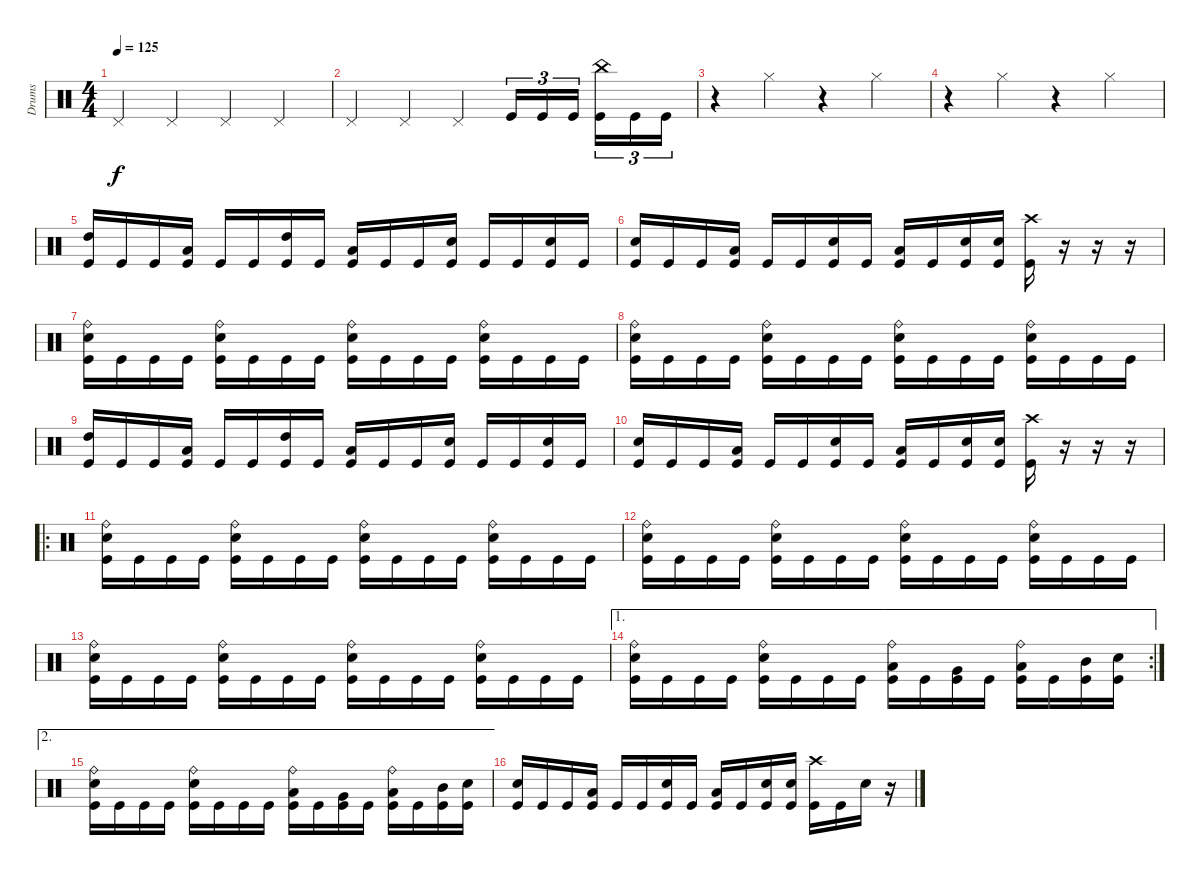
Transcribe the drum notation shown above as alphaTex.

\track ("Drums" "Drums") {instrument percussion}
\staff {score}
\articulation defaults
\ts (4 4)
\tempo 125
\clef neutral
\ks c "Pedal Hi-Hat (hit)".4{dy f} "Pedal Hi-Hat (hit)".4 "Pedal Hi-Hat (hit)".4 "Pedal Hi-Hat (hit)".4
|
"Pedal Hi-Hat (hit)".4 "Pedal Hi-Hat (hit)".4 "Pedal Hi-Hat (hit)".4 "Kick (hit)".16{tu (3 2)} "Kick (hit)".16{tu (3 2)} "Kick (hit)".16{tu (3 2)} ("China (hit)" "Kick (hit)").16{tu (3 2)} "Kick (hit)".16{tu (3 2)} "Kick (hit)".16{tu (3 2)} |
r.4 "Hi-Hat (closed)".4 r.4 "Hi-Hat (closed)".4 |
r.4 "Hi-Hat (closed)".4 r.4 "Hi-Hat (closed)".4 |
("High Tom (hit)" "Kick (hit)").16 "Kick (hit)".16 "Kick (hit)".16 ("Low Tom (hit)" "Kick (hit)").16 "Kick (hit)".16 "Kick (hit)".16 ("High Tom (hit)" "Kick (hit)").16 "Kick (hit)".16 ("Low Tom (hit)" "Kick (hit)").16 "Kick (hit)".16 "Kick (hit)".16 ("Snare (hit) 2" "Kick (hit)").16 "Kick (hit)".16 "Kick (hit)".16 ("Snare (hit) 2" "Kick (hit)").16 "Kick (hit)".16 |
("Snare (hit) 2" "Kick (hit)").16 "Kick (hit)".16 "Kick (hit)".16 ("Low Floor Tom (hit)" "Kick (hit)").16 "Kick (hit)".16 "Kick (hit)".16 ("Snare (hit) 2" "Kick (hit)").16 "Kick (hit)".16 ("Low Floor Tom (hit)" "Kick (hit)").16 "Kick (hit)".16 ("Snare (hit) 2" "Kick (hit)").16 ("Snare (hit) 2" "Kick (hit)").16 ("Crash high (hit)" "Kick (hit)").16 r.16 r.16 r.16 |
("Ride (bell)" "Snare (hit) 2" "Kick (hit)").16 "Kick (hit)".16 "Kick (hit)".16 "Kick (hit)".16 ("Ride (bell)" "Snare (hit) 2" "Kick (hit)").16 "Kick (hit)".16 "Kick (hit)".16 "Kick (hit)".16 ("Ride (bell)" "Snare (hit) 2" "Kick (hit)").16 "Kick (hit)".16 "Kick (hit)".16 "Kick (hit)".16 ("Ride (bell)" "Snare (hit) 2" "Kick (hit)").16 "Kick (hit)".16 "Kick (hit)".16 "Kick (hit)".16 |
("Ride (bell)" "Snare (hit) 2" "Kick (hit)").16 "Kick (hit)".16 "Kick (hit)".16 "Kick (hit)".16 ("Ride (bell)" "Snare (hit) 2" "Kick (hit)").16 "Kick (hit)".16 "Kick (hit)".16 "Kick (hit)".16 ("Ride (bell)" "Snare (hit) 2" "Kick (hit)").16 "Kick (hit)".16 "Kick (hit)".16 "Kick (hit)".16 ("Ride (bell)" "Snare (hit) 2" "Kick (hit)").16 "Kick (hit)".16 "Kick (hit)".16 "Kick (hit)".16 |
("High Tom (hit)" "Kick (hit)").16 "Kick (hit)".16 "Kick (hit)".16 ("Low Tom (hit)" "Kick (hit)").16 "Kick (hit)".16 "Kick (hit)".16 ("High Tom (hit)" "Kick (hit)").16 "Kick (hit)".16 ("Low Tom (hit)" "Kick (hit)").16 "Kick (hit)".16 "Kick (hit)".16 ("Snare (hit) 2" "Kick (hit)").16 "Kick (hit)".16 "Kick (hit)".16 ("Snare (hit) 2" "Kick (hit)").16 "Kick (hit)".16 |
("Snare (hit) 2" "Kick (hit)").16 "Kick (hit)".16 "Kick (hit)".16 ("Low Floor Tom (hit)" "Kick (hit)").16 "Kick (hit)".16 "Kick (hit)".16 ("Snare (hit) 2" "Kick (hit)").16 "Kick (hit)".16 ("Low Floor Tom (hit)" "Kick (hit)").16 "Kick (hit)".16 ("Snare (hit) 2" "Kick (hit)").16 ("Snare (hit) 2" "Kick (hit)").16 ("Crash high (hit)" "Kick (hit)").16 r.16 r.16 r.16 |
\ro
("Ride (bell)" "Snare (hit) 2" "Kick (hit)").16 "Kick (hit)".16 "Kick (hit)".16 "Kick (hit)".16 ("Ride (bell)" "Snare (hit) 2" "Kick (hit)").16 "Kick (hit)".16 "Kick (hit)".16 "Kick (hit)".16 ("Ride (bell)" "Snare (hit) 2" "Kick (hit)").16 "Kick (hit)".16 "Kick (hit)".16 "Kick (hit)".16 ("Ride (bell)" "Snare (hit) 2" "Kick (hit)").16 "Kick (hit)".16 "Kick (hit)".16 "Kick (hit)".16 |
("Ride (bell)" "Snare (hit) 2" "Kick (hit)").16 "Kick (hit)".16 "Kick (hit)".16 "Kick (hit)".16 ("Ride (bell)" "Snare (hit) 2" "Kick (hit)").16 "Kick (hit)".16 "Kick (hit)".16 "Kick (hit)".16 ("Ride (bell)" "Snare (hit) 2" "Kick (hit)").16 "Kick (hit)".16 "Kick (hit)".16 "Kick (hit)".16 ("Ride (bell)" "Snare (hit) 2" "Kick (hit)").16 "Kick (hit)".16 "Kick (hit)".16 "Kick (hit)".16 |
("Ride (bell)" "Snare (hit) 2" "Kick (hit)").16 "Kick (hit)".16 "Kick (hit)".16 "Kick (hit)".16 ("Ride (bell)" "Snare (hit) 2" "Kick (hit)").16 "Kick (hit)".16 "Kick (hit)".16 "Kick (hit)".16 ("Ride (bell)" "Snare (hit) 2" "Kick (hit)").16 "Kick (hit)".16 "Kick (hit)".16 "Kick (hit)".16 ("Ride (bell)" "Snare (hit) 2" "Kick (hit)").16 "Kick (hit)".16 "Kick (hit)".16 "Kick (hit)".16 |
\ae 1
\rc 2
("Ride (bell)" "Snare (hit) 2" "Kick (hit)").16 "Kick (hit)".16 "Kick (hit)".16 "Kick (hit)".16 ("Ride (bell)" "Snare (hit) 2" "Kick (hit)").16 "Kick (hit)".16 "Kick (hit)".16 "Kick (hit)".16 ("Ride (bell)" "Low Floor Tom (hit)" "Kick (hit)").16 "Kick (hit)".16 ("Very Low Tom (hit)" "Kick (hit)").16 "Kick (hit)".16 ("Ride (bell)" "Low Tom (hit)" "Kick (hit)").16 "Kick (hit)".16 ("Mid Tom (hit)" "Kick (hit)").16 ("Snare (hit) 2" "Kick (hit)").16 |
\ae 2
("Ride (bell)" "Snare (hit) 2" "Kick (hit)").16 "Kick (hit)".16 "Kick (hit)".16 "Kick (hit)".16 ("Ride (bell)" "Snare (hit) 2" "Kick (hit)").16 "Kick (hit)".16 "Kick (hit)".16 "Kick (hit)".16 ("Ride (bell)" "Low Floor Tom (hit)" "Kick (hit)").16 "Kick (hit)".16 ("Very Low Tom (hit)" "Kick (hit)").16 "Kick (hit)".16 ("Ride (bell)" "Low Tom (hit)" "Kick (hit)").16 "Kick (hit)".16 ("Mid Tom (hit)" "Kick (hit)").16 ("Snare (hit) 2" "Kick (hit)").16 |
("Snare (hit) 2" "Kick (hit)").16 "Kick (hit)".16 "Kick (hit)".16 ("Low Floor Tom (hit)" "Kick (hit)").16 "Kick (hit)".16 "Kick (hit)".16 ("Snare (hit) 2" "Kick (hit)").16 "Kick (hit)".16 ("Low Floor Tom (hit)" "Kick (hit)").16 "Kick (hit)".16 ("Snare (hit) 2" "Kick (hit)").16 ("Snare (hit) 2" "Kick (hit)").16 ("Crash high (hit)" "Kick (hit)").16 "Kick (hit)".16 "Snare (hit) 2".16 r.16
